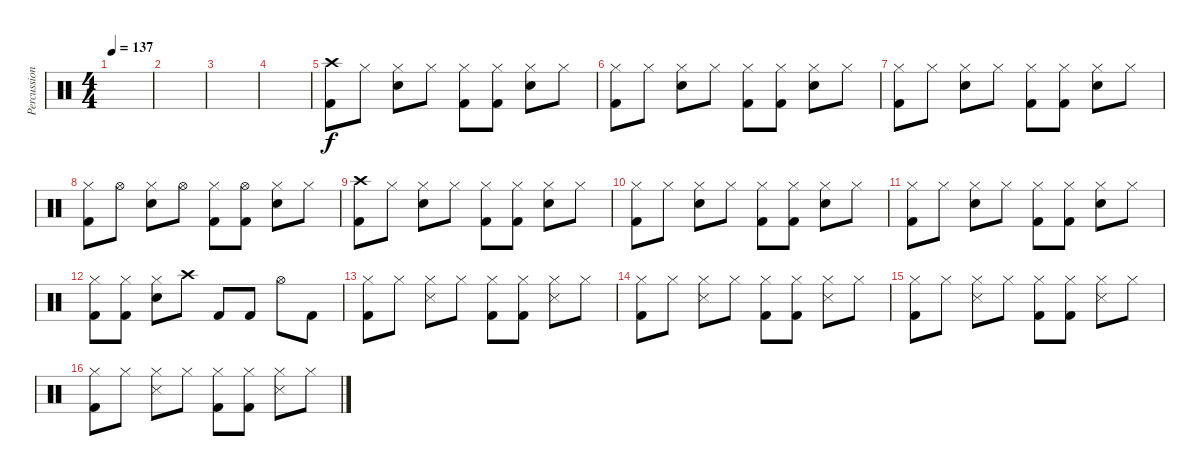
\track ("Percussions" "Percussion") {instrument percussion}
\staff {score}
\articulation defaults
\ts (4 4)
\tempo 137
\clef neutral
\ks c
|
|
|
|
("Crash high (hit)" "Kick (hit) 2").8 "Hi-Hat (closed)".8 ("Hi-Hat (closed)" "Snare (hit) 2").8 "Hi-Hat (closed)".8 ("Hi-Hat (closed)" "Kick (hit) 2").8 ("Hi-Hat (closed)" "Kick (hit) 2").8 ("Hi-Hat (closed)" "Snare (hit) 2").8 "Hi-Hat (closed)".8 |
("Hi-Hat (closed)" "Kick (hit) 2").8 "Hi-Hat (closed)".8 ("Hi-Hat (closed)" "Snare (hit) 2").8 "Hi-Hat (closed)".8 ("Hi-Hat (closed)" "Kick (hit) 2").8 ("Hi-Hat (closed)" "Kick (hit) 2").8 ("Hi-Hat (closed)" "Snare (hit) 2").8 "Hi-Hat (closed)".8 |
("Hi-Hat (closed)" "Kick (hit) 2").8 "Hi-Hat (closed)".8 ("Hi-Hat (closed)" "Snare (hit) 2").8 "Hi-Hat (closed)".8 ("Hi-Hat (closed)" "Kick (hit) 2").8 ("Hi-Hat (closed)" "Kick (hit) 2").8 ("Hi-Hat (closed)" "Snare (hit) 2").8 "Hi-Hat (closed)".8 |
("Hi-Hat (closed)" "Kick (hit) 2").8 "Hi-Hat (open)".8 ("Hi-Hat (closed)" "Snare (hit) 2").8 "Hi-Hat (open)".8 ("Hi-Hat (closed)" "Kick (hit) 2").8 ("Hi-Hat (open)" "Kick (hit) 2").8 ("Hi-Hat (closed)" "Snare (hit) 2").8 "Hi-Hat (closed)".8 |
("Crash high (hit)" "Kick (hit) 2").8 "Hi-Hat (closed)".8 ("Hi-Hat (closed)" "Snare (hit) 2").8 "Hi-Hat (closed)".8 ("Hi-Hat (closed)" "Kick (hit) 2").8 ("Hi-Hat (closed)" "Kick (hit) 2").8 ("Hi-Hat (closed)" "Snare (hit) 2").8 "Hi-Hat (closed)".8 |
("Hi-Hat (closed)" "Kick (hit) 2").8 "Hi-Hat (closed)".8 ("Hi-Hat (closed)" "Snare (hit) 2").8 "Hi-Hat (closed)".8 ("Hi-Hat (closed)" "Kick (hit) 2").8 ("Hi-Hat (closed)" "Kick (hit) 2").8 ("Hi-Hat (closed)" "Snare (hit) 2").8 "Hi-Hat (closed)".8 |
("Hi-Hat (closed)" "Kick (hit) 2").8 "Hi-Hat (closed)".8 ("Hi-Hat (closed)" "Snare (hit) 2").8 "Hi-Hat (closed)".8 ("Hi-Hat (closed)" "Kick (hit) 2").8 ("Hi-Hat (closed)" "Kick (hit) 2").8 ("Hi-Hat (closed)" "Snare (hit) 2").8 "Hi-Hat (closed)".8 |
("Hi-Hat (closed)" "Kick (hit) 2").8 ("Hi-Hat (closed)" "Kick (hit) 2").8 ("Hi-Hat (closed)" "Snare (hit) 2").8 "Crash high (hit)".8 "Kick (hit) 2".8 "Kick (hit) 2".8 "Hi-Hat (open)".8 "Kick (hit) 2".8 |
("Hi-Hat (closed)" "Kick (hit) 2").8 "Hi-Hat (closed)".8 ("Hi-Hat (closed)" "Snare (side stick) 3").8 "Hi-Hat (closed)".8 ("Hi-Hat (closed)" "Kick (hit) 2").8 ("Hi-Hat (closed)" "Kick (hit) 2").8 ("Hi-Hat (closed)" "Snare (side stick) 3").8 "Hi-Hat (closed)".8 |
("Hi-Hat (closed)" "Kick (hit) 2").8 "Hi-Hat (closed)".8 ("Hi-Hat (closed)" "Snare (side stick) 3").8 "Hi-Hat (closed)".8 ("Hi-Hat (closed)" "Kick (hit) 2").8 ("Hi-Hat (closed)" "Kick (hit) 2").8 ("Hi-Hat (closed)" "Snare (side stick) 3").8 "Hi-Hat (closed)".8 |
("Hi-Hat (closed)" "Kick (hit) 2").8 "Hi-Hat (closed)".8 ("Hi-Hat (closed)" "Snare (side stick) 3").8 "Hi-Hat (closed)".8 ("Hi-Hat (closed)" "Kick (hit) 2").8 ("Hi-Hat (closed)" "Kick (hit) 2").8 ("Hi-Hat (closed)" "Snare (side stick) 3").8 "Hi-Hat (closed)".8 |
("Hi-Hat (closed)" "Kick (hit) 2").8 "Hi-Hat (closed)".8 ("Hi-Hat (closed)" "Snare (side stick) 3").8 "Hi-Hat (closed)".8 ("Hi-Hat (closed)" "Kick (hit) 2").8 ("Hi-Hat (closed)" "Kick (hit) 2").8 ("Hi-Hat (closed)" "Snare (side stick) 3").8 "Hi-Hat (closed)".8
